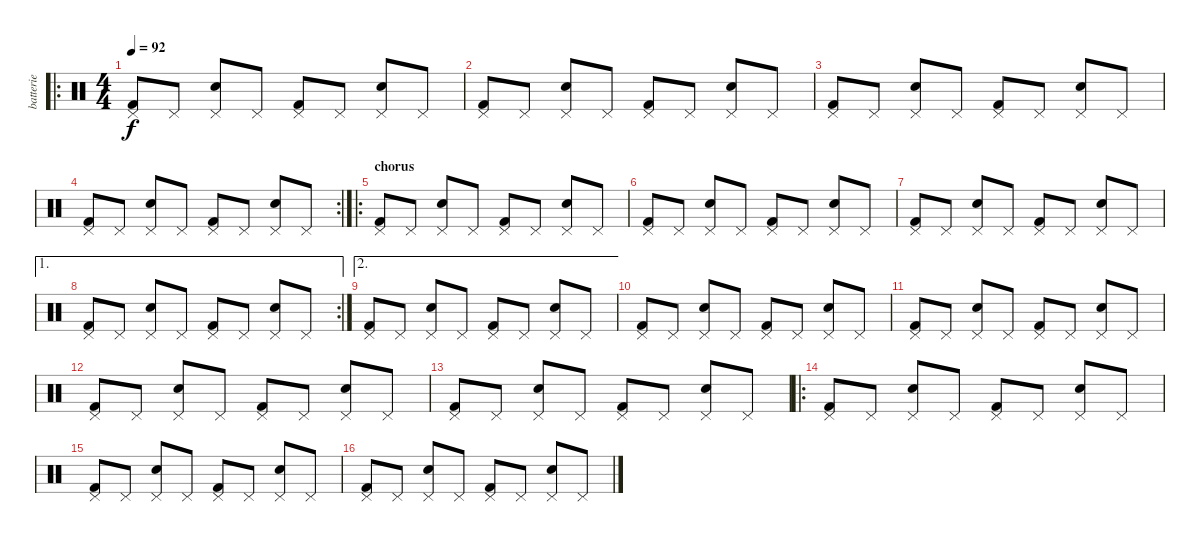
\track ("batterie" "batterie") {instrument percussion}
\staff {score}
\articulation defaults
\ro
\ts (4 4)
\tempo 92
\clef neutral
\ks c
("Pedal Hi-Hat (hit)" "Kick (hit) 2").8{dy f} "Pedal Hi-Hat (hit)".8 ("Pedal Hi-Hat (hit)" "Snare (hit) 2").8 "Pedal Hi-Hat (hit)".8 ("Pedal Hi-Hat (hit)" "Kick (hit) 2").8 "Pedal Hi-Hat (hit)".8 ("Pedal Hi-Hat (hit)" "Snare (hit) 2").8 "Pedal Hi-Hat (hit)".8 |
("Pedal Hi-Hat (hit)" "Kick (hit) 2").8 "Pedal Hi-Hat (hit)".8 ("Pedal Hi-Hat (hit)" "Snare (hit) 2").8 "Pedal Hi-Hat (hit)".8 ("Pedal Hi-Hat (hit)" "Kick (hit) 2").8 "Pedal Hi-Hat (hit)".8 ("Pedal Hi-Hat (hit)" "Snare (hit) 2").8 "Pedal Hi-Hat (hit)".8 |
("Pedal Hi-Hat (hit)" "Kick (hit) 2").8 "Pedal Hi-Hat (hit)".8 ("Pedal Hi-Hat (hit)" "Snare (hit) 2").8 "Pedal Hi-Hat (hit)".8 ("Pedal Hi-Hat (hit)" "Kick (hit) 2").8 "Pedal Hi-Hat (hit)".8 ("Pedal Hi-Hat (hit)" "Snare (hit) 2").8 "Pedal Hi-Hat (hit)".8 |
\rc 2
("Pedal Hi-Hat (hit)" "Kick (hit) 2").8 "Pedal Hi-Hat (hit)".8 ("Pedal Hi-Hat (hit)" "Snare (hit) 2").8 "Pedal Hi-Hat (hit)".8 ("Pedal Hi-Hat (hit)" "Kick (hit) 2").8 "Pedal Hi-Hat (hit)".8 ("Pedal Hi-Hat (hit)" "Snare (hit) 2").8 "Pedal Hi-Hat (hit)".8 |
\ro
\section ("" "chorus")
("Pedal Hi-Hat (hit)" "Kick (hit) 2").8 "Pedal Hi-Hat (hit)".8 ("Pedal Hi-Hat (hit)" "Snare (hit) 2").8 "Pedal Hi-Hat (hit)".8 ("Pedal Hi-Hat (hit)" "Kick (hit) 2").8 "Pedal Hi-Hat (hit)".8 ("Pedal Hi-Hat (hit)" "Snare (hit) 2").8 "Pedal Hi-Hat (hit)".8 |
("Pedal Hi-Hat (hit)" "Kick (hit) 2").8 "Pedal Hi-Hat (hit)".8 ("Pedal Hi-Hat (hit)" "Snare (hit) 2").8 "Pedal Hi-Hat (hit)".8 ("Pedal Hi-Hat (hit)" "Kick (hit) 2").8 "Pedal Hi-Hat (hit)".8 ("Pedal Hi-Hat (hit)" "Snare (hit) 2").8 "Pedal Hi-Hat (hit)".8 |
("Pedal Hi-Hat (hit)" "Kick (hit) 2").8 "Pedal Hi-Hat (hit)".8 ("Pedal Hi-Hat (hit)" "Snare (hit) 2").8 "Pedal Hi-Hat (hit)".8 ("Pedal Hi-Hat (hit)" "Kick (hit) 2").8 "Pedal Hi-Hat (hit)".8 ("Pedal Hi-Hat (hit)" "Snare (hit) 2").8 "Pedal Hi-Hat (hit)".8 |
\ae 1
\rc 2
("Pedal Hi-Hat (hit)" "Kick (hit) 2").8 "Pedal Hi-Hat (hit)".8 ("Pedal Hi-Hat (hit)" "Snare (hit) 2").8 "Pedal Hi-Hat (hit)".8 ("Pedal Hi-Hat (hit)" "Kick (hit) 2").8 "Pedal Hi-Hat (hit)".8 ("Pedal Hi-Hat (hit)" "Snare (hit) 2").8 "Pedal Hi-Hat (hit)".8 |
\ae 2
("Pedal Hi-Hat (hit)" "Kick (hit) 2").8 "Pedal Hi-Hat (hit)".8 ("Pedal Hi-Hat (hit)" "Snare (hit) 2").8 "Pedal Hi-Hat (hit)".8 ("Pedal Hi-Hat (hit)" "Kick (hit) 2").8 "Pedal Hi-Hat (hit)".8 ("Pedal Hi-Hat (hit)" "Snare (hit) 2").8 "Pedal Hi-Hat (hit)".8 |
("Pedal Hi-Hat (hit)" "Kick (hit) 2").8 "Pedal Hi-Hat (hit)".8 ("Pedal Hi-Hat (hit)" "Snare (hit) 2").8 "Pedal Hi-Hat (hit)".8 ("Pedal Hi-Hat (hit)" "Kick (hit) 2").8 "Pedal Hi-Hat (hit)".8 ("Pedal Hi-Hat (hit)" "Snare (hit) 2").8 "Pedal Hi-Hat (hit)".8 |
("Pedal Hi-Hat (hit)" "Kick (hit) 2").8 "Pedal Hi-Hat (hit)".8 ("Pedal Hi-Hat (hit)" "Snare (hit) 2").8 "Pedal Hi-Hat (hit)".8 ("Pedal Hi-Hat (hit)" "Kick (hit) 2").8 "Pedal Hi-Hat (hit)".8 ("Pedal Hi-Hat (hit)" "Snare (hit) 2").8 "Pedal Hi-Hat (hit)".8 |
("Pedal Hi-Hat (hit)" "Kick (hit) 2").8 "Pedal Hi-Hat (hit)".8 ("Pedal Hi-Hat (hit)" "Snare (hit) 2").8 "Pedal Hi-Hat (hit)".8 ("Pedal Hi-Hat (hit)" "Kick (hit) 2").8 "Pedal Hi-Hat (hit)".8 ("Pedal Hi-Hat (hit)" "Snare (hit) 2").8 "Pedal Hi-Hat (hit)".8 |
("Pedal Hi-Hat (hit)" "Kick (hit) 2").8 "Pedal Hi-Hat (hit)".8 ("Pedal Hi-Hat (hit)" "Snare (hit) 2").8 "Pedal Hi-Hat (hit)".8 ("Pedal Hi-Hat (hit)" "Kick (hit) 2").8 "Pedal Hi-Hat (hit)".8 ("Pedal Hi-Hat (hit)" "Snare (hit) 2").8 "Pedal Hi-Hat (hit)".8 |
\ro
("Pedal Hi-Hat (hit)" "Kick (hit) 2").8 "Pedal Hi-Hat (hit)".8 ("Pedal Hi-Hat (hit)" "Snare (hit) 2").8 "Pedal Hi-Hat (hit)".8 ("Pedal Hi-Hat (hit)" "Kick (hit) 2").8 "Pedal Hi-Hat (hit)".8 ("Pedal Hi-Hat (hit)" "Snare (hit) 2").8 "Pedal Hi-Hat (hit)".8 |
("Pedal Hi-Hat (hit)" "Kick (hit) 2").8 "Pedal Hi-Hat (hit)".8 ("Pedal Hi-Hat (hit)" "Snare (hit) 2").8 "Pedal Hi-Hat (hit)".8 ("Pedal Hi-Hat (hit)" "Kick (hit) 2").8 "Pedal Hi-Hat (hit)".8 ("Pedal Hi-Hat (hit)" "Snare (hit) 2").8 "Pedal Hi-Hat (hit)".8 |
("Pedal Hi-Hat (hit)" "Kick (hit) 2").8 "Pedal Hi-Hat (hit)".8 ("Pedal Hi-Hat (hit)" "Snare (hit) 2").8 "Pedal Hi-Hat (hit)".8 ("Pedal Hi-Hat (hit)" "Kick (hit) 2").8 "Pedal Hi-Hat (hit)".8 ("Pedal Hi-Hat (hit)" "Snare (hit) 2").8 "Pedal Hi-Hat (hit)".8
